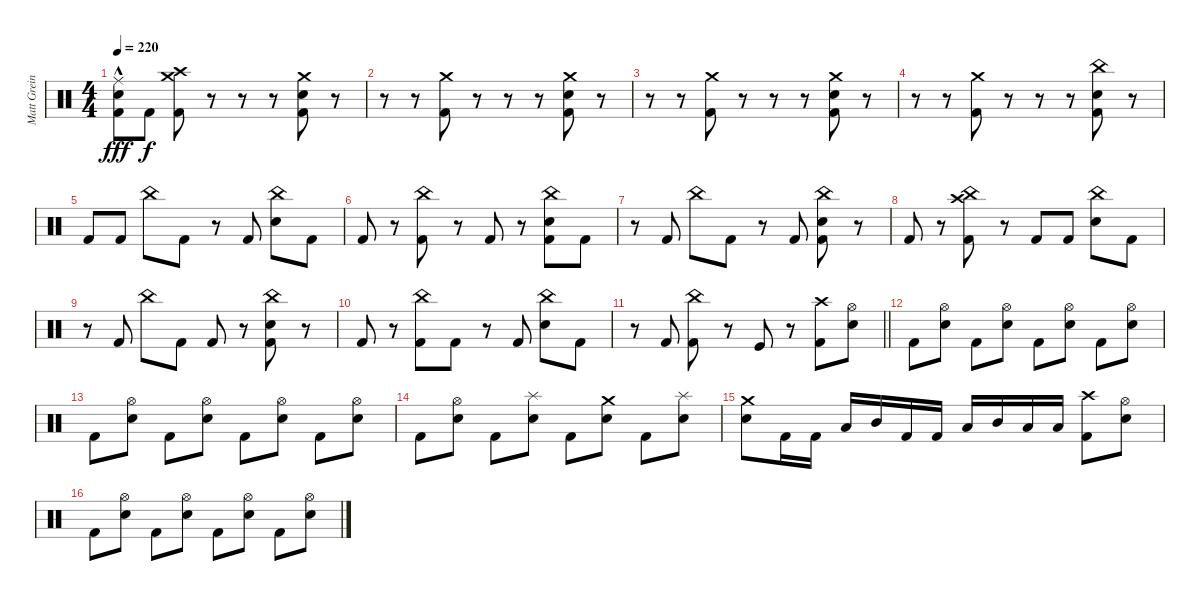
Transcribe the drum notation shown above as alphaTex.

\track ("Matt Greiner (Drums)" "Matt Grein") {instrument percussion}
\staff {score}
\articulation defaults
\ts (4 4)
\tempo 220
\clef neutral
\ks c
("Ride (middle)" "Electric Snare (hit)"{hac} "Kick (hit) 2").8{dy fff} "Kick (hit) 2".8{dy f} ("Crash high (hit)" "Crash medium (hit)" "Kick (hit) 2").8 r.8 r.8 r.8 ("Crash medium (hit)" "Electric Snare (hit)" "Kick (hit) 2").8 r.8 |
r.8 r.8 ("Crash medium (hit)" "Kick (hit) 2").8 r.8 r.8 r.8 ("Crash medium (hit)" "Electric Snare (hit)" "Kick (hit) 2").8 r.8 |
r.8 r.8 ("Crash medium (hit)" "Kick (hit) 2").8 r.8 r.8 r.8 ("Crash medium (hit)" "Electric Snare (hit)" "Kick (hit) 2").8 r.8 |
r.8 r.8 ("Crash medium (hit)" "Kick (hit) 2").8 r.8 r.8 r.8 ("China (hit)" "Electric Snare (hit)" "Kick (hit) 2").8 r.8 |
"Kick (hit) 2".8 "Kick (hit) 2".8 "China (hit)".8 "Kick (hit) 2".8 r.8 "Kick (hit) 2".8 ("China (hit)" "Electric Snare (hit)").8 "Kick (hit) 2".8 |
"Kick (hit) 2".8 r.8 ("China (hit)" "Kick (hit) 2").8 r.8 "Kick (hit) 2".8 r.8 ("China (hit)" "Electric Snare (hit)" "Kick (hit) 2").8 "Kick (hit) 2".8 |
r.8 "Kick (hit) 2".8 "China (hit)".8 "Kick (hit) 2".8 r.8 "Kick (hit) 2".8 ("China (hit)" "Electric Snare (hit)" "Kick (hit) 2").8 r.8 |
"Kick (hit) 2".8 r.8 ("Crash high (hit)" "China (hit)" "Kick (hit) 2").8 r.8 "Kick (hit) 2".8 "Kick (hit) 2".8 ("China (hit)" "Electric Snare (hit)").8 "Kick (hit) 2".8 |
r.8 "Kick (hit) 2".8 "China (hit)".8 "Kick (hit) 2".8 "Kick (hit) 2".8 r.8 ("China (hit)" "Electric Snare (hit)" "Kick (hit) 2").8 r.8 |
"Kick (hit) 2".8 r.8 ("China (hit)" "Kick (hit) 2").8 "Kick (hit) 2".8 r.8 "Kick (hit) 2".8 ("China (hit)" "Electric Snare (hit)").8 "Kick (hit) 2".8 |
\barLineRight lightlight
r.8 "Kick (hit) 2".8 ("China (hit)" "Kick (hit) 2").8 r.8 "Kick (hit)".8 r.8 ("Crash high (hit)" "Kick (hit) 2").8 ("Hi-Hat (open)" "Electric Snare (hit)").8 |
"Kick (hit) 2".8 ("Hi-Hat (open)" "Electric Snare (hit)").8 "Kick (hit) 2".8 ("Hi-Hat (open)" "Electric Snare (hit)").8 "Kick (hit) 2".8 ("Hi-Hat (open)" "Electric Snare (hit)").8 "Kick (hit) 2".8 ("Hi-Hat (open)" "Electric Snare (hit)").8 |
"Kick (hit) 2".8 ("Hi-Hat (open)" "Electric Snare (hit)").8 "Kick (hit) 2".8 ("Hi-Hat (open)" "Electric Snare (hit)").8 "Kick (hit) 2".8 ("Hi-Hat (open)" "Electric Snare (hit)").8 "Kick (hit) 2".8 ("Hi-Hat (open)" "Electric Snare (hit)").8 |
"Kick (hit) 2".8 ("Hi-Hat (open)" "Electric Snare (hit)").8 "Kick (hit) 2".8 ("Splash (hit)" "Electric Snare (hit)").8 "Kick (hit) 2".8 ("Crash medium (hit)" "Electric Snare (hit)").8 "Kick (hit) 2".8 ("Splash (hit)" "Electric Snare (hit)").8 |
("Crash medium (hit)" "Electric Snare (hit)").8 "Kick (hit) 2".16 "Kick (hit) 2".16 "Low Tom (hit)".16 "Mid Tom (hit)".16 "Kick (hit) 2".16 "Kick (hit) 2".16 "Low Tom (hit)".16 "Mid Tom (hit)".16 "Low Floor Tom (hit)".16 "Low Floor Tom (hit)".16 ("Crash high (hit)" "Kick (hit) 2").8 ("Hi-Hat (open)" "Electric Snare (hit)").8 |
"Kick (hit) 2".8 ("Hi-Hat (open)" "Electric Snare (hit)").8 "Kick (hit) 2".8 ("Hi-Hat (open)" "Electric Snare (hit)").8 "Kick (hit) 2".8 ("Hi-Hat (open)" "Electric Snare (hit)").8 "Kick (hit) 2".8 ("Hi-Hat (open)" "Electric Snare (hit)").8
